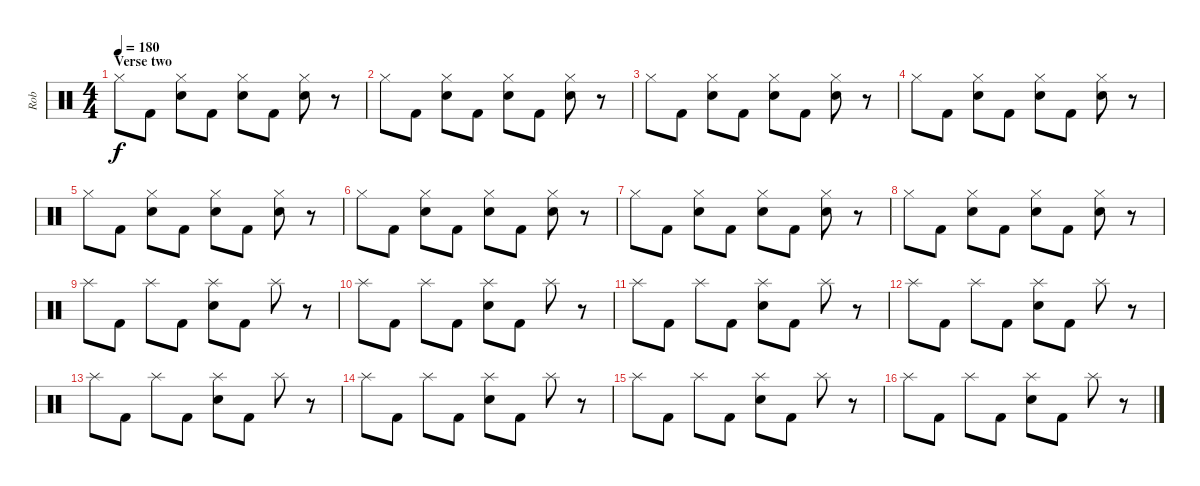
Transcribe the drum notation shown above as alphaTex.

\track ("Rob" "Rob") {instrument percussion}
\staff {score}
\articulation defaults
\ts (4 4)
\section ("" "Verse two")
\tempo 180
\clef neutral
\ks c "Hi-Hat (closed)".8{dy f} "Kick (hit) 2".8
("Hi-Hat (closed)" "Electric Snare (hit)").8 "Kick (hit) 2".8 ("Hi-Hat (closed)" "Electric Snare (hit)").8 "Kick (hit) 2".8 ("Hi-Hat (closed)" "Electric Snare (hit)").8 r.8 |
"Hi-Hat (closed)".8 "Kick (hit) 2".8 ("Hi-Hat (closed)" "Electric Snare (hit)").8 "Kick (hit) 2".8 ("Hi-Hat (closed)" "Electric Snare (hit)").8 "Kick (hit) 2".8 ("Hi-Hat (closed)" "Electric Snare (hit)").8 r.8 |
"Hi-Hat (closed)".8 "Kick (hit) 2".8 ("Hi-Hat (closed)" "Electric Snare (hit)").8 "Kick (hit) 2".8 ("Hi-Hat (closed)" "Electric Snare (hit)").8 "Kick (hit) 2".8 ("Hi-Hat (closed)" "Electric Snare (hit)").8 r.8 |
"Hi-Hat (closed)".8 "Kick (hit) 2".8 ("Hi-Hat (closed)" "Electric Snare (hit)").8 "Kick (hit) 2".8 ("Hi-Hat (closed)" "Electric Snare (hit)").8 "Kick (hit) 2".8 ("Hi-Hat (closed)" "Electric Snare (hit)").8 r.8 |
"Hi-Hat (closed)".8 "Kick (hit) 2".8 ("Hi-Hat (closed)" "Electric Snare (hit)").8 "Kick (hit) 2".8 ("Hi-Hat (closed)" "Electric Snare (hit)").8 "Kick (hit) 2".8 ("Hi-Hat (closed)" "Electric Snare (hit)").8 r.8 |
"Hi-Hat (closed)".8 "Kick (hit) 2".8 ("Hi-Hat (closed)" "Electric Snare (hit)").8 "Kick (hit) 2".8 ("Hi-Hat (closed)" "Electric Snare (hit)").8 "Kick (hit) 2".8 ("Hi-Hat (closed)" "Electric Snare (hit)").8 r.8 |
"Hi-Hat (closed)".8 "Kick (hit) 2".8 ("Hi-Hat (closed)" "Electric Snare (hit)").8 "Kick (hit) 2".8 ("Hi-Hat (closed)" "Electric Snare (hit)").8 "Kick (hit) 2".8 ("Hi-Hat (closed)" "Electric Snare (hit)").8 r.8 |
"Hi-Hat (closed)".8 "Kick (hit) 2".8 ("Hi-Hat (closed)" "Electric Snare (hit)").8 "Kick (hit) 2".8 ("Hi-Hat (closed)" "Electric Snare (hit)").8 "Kick (hit) 2".8 ("Hi-Hat (closed)" "Electric Snare (hit)").8 r.8 |
"Splash (hit)".8 "Kick (hit) 2".8 "Splash (hit)".8 "Kick (hit) 2".8 ("Splash (hit)" "Electric Snare (hit)").8 "Kick (hit) 2".8 "Splash (hit)".8 r.8 |
"Splash (hit)".8 "Kick (hit) 2".8 "Splash (hit)".8 "Kick (hit) 2".8 ("Splash (hit)" "Electric Snare (hit)").8 "Kick (hit) 2".8 "Splash (hit)".8 r.8 |
"Splash (hit)".8 "Kick (hit) 2".8 "Splash (hit)".8 "Kick (hit) 2".8 ("Splash (hit)" "Electric Snare (hit)").8 "Kick (hit) 2".8 "Splash (hit)".8 r.8 |
"Splash (hit)".8 "Kick (hit) 2".8 "Splash (hit)".8 "Kick (hit) 2".8 ("Splash (hit)" "Electric Snare (hit)").8 "Kick (hit) 2".8 "Splash (hit)".8 r.8 |
"Splash (hit)".8 "Kick (hit) 2".8 "Splash (hit)".8 "Kick (hit) 2".8 ("Splash (hit)" "Electric Snare (hit)").8 "Kick (hit) 2".8 "Splash (hit)".8 r.8 |
"Splash (hit)".8 "Kick (hit) 2".8 "Splash (hit)".8 "Kick (hit) 2".8 ("Splash (hit)" "Electric Snare (hit)").8 "Kick (hit) 2".8 "Splash (hit)".8 r.8 |
"Splash (hit)".8 "Kick (hit) 2".8 "Splash (hit)".8 "Kick (hit) 2".8 ("Splash (hit)" "Electric Snare (hit)").8 "Kick (hit) 2".8 "Splash (hit)".8 r.8 |
"Splash (hit)".8 "Kick (hit) 2".8 "Splash (hit)".8 "Kick (hit) 2".8 ("Splash (hit)" "Electric Snare (hit)").8 "Kick (hit) 2".8 "Splash (hit)".8 r.8
